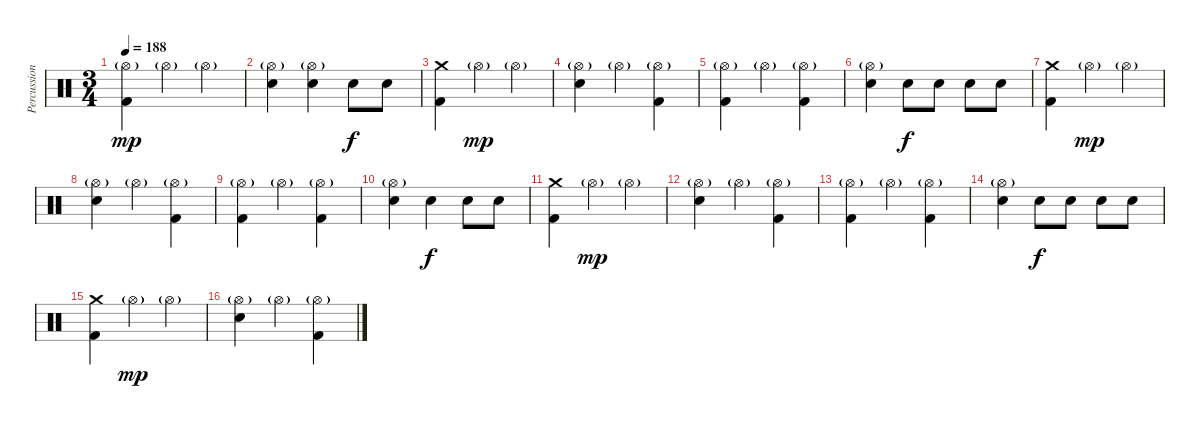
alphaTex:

\track ("Percussion" "Percussion") {instrument percussion}
\staff {score}
\articulation defaults
\ts (3 4)
\tempo 188
\clef neutral
\ks c
("Hi-Hat (open)"{g} "Kick (hit) 2").4{dy mp} "Hi-Hat (open)"{g}.4 "Hi-Hat (open)"{g}.4 |
("Hi-Hat (open)"{g} "Electric Snare (hit)").4 ("Hi-Hat (open)"{g} "Electric Snare (hit)").4 "Electric Snare (hit)".8{dy f} "Electric Snare (hit)".8 |
("Crash medium (hit)" "Kick (hit) 2").4 "Hi-Hat (open)"{g}.4{dy mp} "Hi-Hat (open)"{g}.4 |
("Hi-Hat (open)"{g} "Electric Snare (hit)").4 "Hi-Hat (open)"{g}.4 ("Hi-Hat (open)"{g} "Kick (hit) 2").4 |
("Hi-Hat (open)"{g} "Kick (hit) 2").4 "Hi-Hat (open)"{g}.4 ("Hi-Hat (open)"{g} "Kick (hit) 2").4 |
("Hi-Hat (open)"{g} "Electric Snare (hit)").4 "Electric Snare (hit)".8{dy f} "Electric Snare (hit)".8 "Electric Snare (hit)".8 "Electric Snare (hit)".8 |
("Crash medium (hit)" "Kick (hit) 2").4 "Hi-Hat (open)"{g}.4{dy mp} "Hi-Hat (open)"{g}.4 |
("Hi-Hat (open)"{g} "Electric Snare (hit)").4 "Hi-Hat (open)"{g}.4 ("Hi-Hat (open)"{g} "Kick (hit) 2").4 |
("Hi-Hat (open)"{g} "Kick (hit) 2").4 "Hi-Hat (open)"{g}.4 ("Hi-Hat (open)"{g} "Kick (hit) 2").4 |
("Hi-Hat (open)"{g} "Electric Snare (hit)").4 "Electric Snare (hit)".4{dy f} "Electric Snare (hit)".8 "Electric Snare (hit)".8 |
("Crash medium (hit)" "Kick (hit) 2").4 "Hi-Hat (open)"{g}.4{dy mp} "Hi-Hat (open)"{g}.4 |
("Hi-Hat (open)"{g} "Electric Snare (hit)").4 "Hi-Hat (open)"{g}.4 ("Hi-Hat (open)"{g} "Kick (hit) 2").4 |
("Hi-Hat (open)"{g} "Kick (hit) 2").4 "Hi-Hat (open)"{g}.4 ("Hi-Hat (open)"{g} "Kick (hit) 2").4 |
("Hi-Hat (open)"{g} "Electric Snare (hit)").4 "Electric Snare (hit)".8{dy f} "Electric Snare (hit)".8 "Electric Snare (hit)".8 "Electric Snare (hit)".8 |
("Crash medium (hit)" "Kick (hit) 2").4 "Hi-Hat (open)"{g}.4{dy mp} "Hi-Hat (open)"{g}.4 |
("Hi-Hat (open)"{g} "Electric Snare (hit)").4 "Hi-Hat (open)"{g}.4 ("Hi-Hat (open)"{g} "Kick (hit) 2").4
